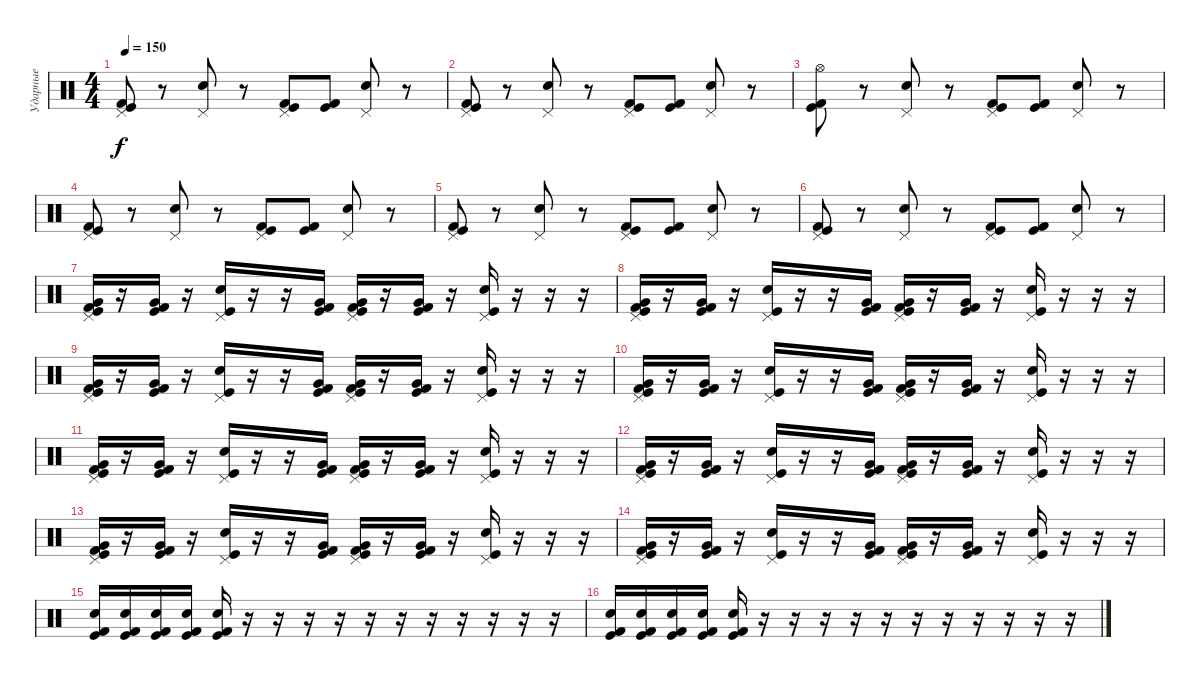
\track ("Ударные" "Ударные") {instrument percussion}
\staff {score}
\articulation defaults
\ts (4 4)
\tempo 150
\clef neutral
\ks c
("Pedal Hi-Hat (hit)" "Kick (hit)" "Kick (hit) 2").8{dy f} r.8 ("Pedal Hi-Hat (hit)" "Electric Snare (hit)").8 r.8 ("Pedal Hi-Hat (hit)" "Kick (hit)" "Kick (hit) 2").8 ("Kick (hit)" "Kick (hit) 2").8 ("Pedal Hi-Hat (hit)" "Electric Snare (hit)").8 r.8 |
("Pedal Hi-Hat (hit)" "Kick (hit)" "Kick (hit) 2").8 r.8 ("Pedal Hi-Hat (hit)" "Electric Snare (hit)").8 r.8 ("Pedal Hi-Hat (hit)" "Kick (hit)" "Kick (hit) 2").8 ("Kick (hit)" "Kick (hit) 2").8 ("Pedal Hi-Hat (hit)" "Electric Snare (hit)").8 r.8 |
("Hi-Hat (open)" "Kick (hit)" "Kick (hit) 2").8 r.8 ("Pedal Hi-Hat (hit)" "Electric Snare (hit)").8 r.8 ("Pedal Hi-Hat (hit)" "Kick (hit)" "Kick (hit) 2").8 ("Kick (hit)" "Kick (hit) 2").8 ("Pedal Hi-Hat (hit)" "Electric Snare (hit)").8 r.8 |
("Pedal Hi-Hat (hit)" "Kick (hit)" "Kick (hit) 2").8 r.8 ("Pedal Hi-Hat (hit)" "Electric Snare (hit)").8 r.8 ("Pedal Hi-Hat (hit)" "Kick (hit)" "Kick (hit) 2").8 ("Kick (hit)" "Kick (hit) 2").8 ("Pedal Hi-Hat (hit)" "Electric Snare (hit)").8 r.8 |
("Pedal Hi-Hat (hit)" "Kick (hit)" "Kick (hit) 2").8 r.8 ("Pedal Hi-Hat (hit)" "Electric Snare (hit)").8 r.8 ("Pedal Hi-Hat (hit)" "Kick (hit)" "Kick (hit) 2").8 ("Kick (hit)" "Kick (hit) 2").8 ("Pedal Hi-Hat (hit)" "Electric Snare (hit)").8 r.8 |
("Pedal Hi-Hat (hit)" "Kick (hit)" "Kick (hit) 2").8 r.8 ("Pedal Hi-Hat (hit)" "Electric Snare (hit)").8 r.8 ("Pedal Hi-Hat (hit)" "Kick (hit)" "Kick (hit) 2").8 ("Kick (hit)" "Kick (hit) 2").8 ("Pedal Hi-Hat (hit)" "Electric Snare (hit)").8 r.8 |
("Pedal Hi-Hat (hit)" "Very Low Tom (hit)" "Kick (hit) 2" "Kick (hit)").16 r.16 ("Very Low Tom (hit)" "Kick (hit) 2" "Kick (hit)").16 r.16 ("Pedal Hi-Hat (hit)" "Electric Snare (hit)" "Kick (hit)").16 r.16 r.16 ("Very Low Tom (hit)" "Kick (hit) 2" "Kick (hit)").16 ("Pedal Hi-Hat (hit)" "Very Low Tom (hit)" "Kick (hit) 2" "Kick (hit)").16 r.16 ("Very Low Tom (hit)" "Kick (hit) 2" "Kick (hit)").16 r.16 ("Pedal Hi-Hat (hit)" "Electric Snare (hit)" "Kick (hit)").16 r.16 r.16 r.16 |
("Pedal Hi-Hat (hit)" "Very Low Tom (hit)" "Kick (hit) 2" "Kick (hit)").16 r.16 ("Very Low Tom (hit)" "Kick (hit) 2" "Kick (hit)").16 r.16 ("Pedal Hi-Hat (hit)" "Electric Snare (hit)" "Kick (hit)").16 r.16 r.16 ("Very Low Tom (hit)" "Kick (hit) 2" "Kick (hit)").16 ("Pedal Hi-Hat (hit)" "Very Low Tom (hit)" "Kick (hit) 2" "Kick (hit)").16 r.16 ("Very Low Tom (hit)" "Kick (hit) 2" "Kick (hit)").16 r.16 ("Pedal Hi-Hat (hit)" "Electric Snare (hit)" "Kick (hit)").16 r.16 r.16 r.16 |
("Pedal Hi-Hat (hit)" "Very Low Tom (hit)" "Kick (hit) 2" "Kick (hit)").16 r.16 ("Very Low Tom (hit)" "Kick (hit) 2" "Kick (hit)").16 r.16 ("Pedal Hi-Hat (hit)" "Electric Snare (hit)" "Kick (hit)").16 r.16 r.16 ("Very Low Tom (hit)" "Kick (hit) 2" "Kick (hit)").16 ("Pedal Hi-Hat (hit)" "Very Low Tom (hit)" "Kick (hit) 2" "Kick (hit)").16 r.16 ("Very Low Tom (hit)" "Kick (hit) 2" "Kick (hit)").16 r.16 ("Pedal Hi-Hat (hit)" "Electric Snare (hit)" "Kick (hit)").16 r.16 r.16 r.16 |
("Pedal Hi-Hat (hit)" "Very Low Tom (hit)" "Kick (hit) 2" "Kick (hit)").16 r.16 ("Very Low Tom (hit)" "Kick (hit) 2" "Kick (hit)").16 r.16 ("Pedal Hi-Hat (hit)" "Electric Snare (hit)" "Kick (hit)").16 r.16 r.16 ("Very Low Tom (hit)" "Kick (hit) 2" "Kick (hit)").16 ("Pedal Hi-Hat (hit)" "Very Low Tom (hit)" "Kick (hit) 2" "Kick (hit)").16 r.16 ("Very Low Tom (hit)" "Kick (hit) 2" "Kick (hit)").16 r.16 ("Pedal Hi-Hat (hit)" "Electric Snare (hit)" "Kick (hit)").16 r.16 r.16 r.16 |
("Pedal Hi-Hat (hit)" "Very Low Tom (hit)" "Kick (hit) 2" "Kick (hit)").16 r.16 ("Very Low Tom (hit)" "Kick (hit) 2" "Kick (hit)").16 r.16 ("Pedal Hi-Hat (hit)" "Electric Snare (hit)" "Kick (hit)").16 r.16 r.16 ("Very Low Tom (hit)" "Kick (hit) 2" "Kick (hit)").16 ("Pedal Hi-Hat (hit)" "Very Low Tom (hit)" "Kick (hit) 2" "Kick (hit)").16 r.16 ("Very Low Tom (hit)" "Kick (hit) 2" "Kick (hit)").16 r.16 ("Pedal Hi-Hat (hit)" "Electric Snare (hit)" "Kick (hit)").16 r.16 r.16 r.16 |
("Pedal Hi-Hat (hit)" "Very Low Tom (hit)" "Kick (hit) 2" "Kick (hit)").16 r.16 ("Very Low Tom (hit)" "Kick (hit) 2" "Kick (hit)").16 r.16 ("Pedal Hi-Hat (hit)" "Electric Snare (hit)" "Kick (hit)").16 r.16 r.16 ("Very Low Tom (hit)" "Kick (hit) 2" "Kick (hit)").16 ("Pedal Hi-Hat (hit)" "Very Low Tom (hit)" "Kick (hit) 2" "Kick (hit)").16 r.16 ("Very Low Tom (hit)" "Kick (hit) 2" "Kick (hit)").16 r.16 ("Pedal Hi-Hat (hit)" "Electric Snare (hit)" "Kick (hit)").16 r.16 r.16 r.16 |
("Pedal Hi-Hat (hit)" "Very Low Tom (hit)" "Kick (hit) 2" "Kick (hit)").16 r.16 ("Very Low Tom (hit)" "Kick (hit) 2" "Kick (hit)").16 r.16 ("Pedal Hi-Hat (hit)" "Electric Snare (hit)" "Kick (hit)").16 r.16 r.16 ("Very Low Tom (hit)" "Kick (hit) 2" "Kick (hit)").16 ("Pedal Hi-Hat (hit)" "Very Low Tom (hit)" "Kick (hit) 2" "Kick (hit)").16 r.16 ("Very Low Tom (hit)" "Kick (hit) 2" "Kick (hit)").16 r.16 ("Pedal Hi-Hat (hit)" "Electric Snare (hit)" "Kick (hit)").16 r.16 r.16 r.16 |
("Pedal Hi-Hat (hit)" "Very Low Tom (hit)" "Kick (hit) 2" "Kick (hit)").16 r.16 ("Very Low Tom (hit)" "Kick (hit) 2" "Kick (hit)").16 r.16 ("Pedal Hi-Hat (hit)" "Electric Snare (hit)" "Kick (hit)").16 r.16 r.16 ("Very Low Tom (hit)" "Kick (hit) 2" "Kick (hit)").16 ("Pedal Hi-Hat (hit)" "Very Low Tom (hit)" "Kick (hit) 2" "Kick (hit)").16 r.16 ("Very Low Tom (hit)" "Kick (hit) 2" "Kick (hit)").16 r.16 ("Pedal Hi-Hat (hit)" "Electric Snare (hit)" "Kick (hit)").16 r.16 r.16 r.16 |
("Electric Snare (hit)" "Kick (hit)" "Kick (hit) 2").16 ("Electric Snare (hit)" "Kick (hit)" "Kick (hit) 2").16 ("Electric Snare (hit)" "Kick (hit)" "Kick (hit) 2").16 ("Electric Snare (hit)" "Kick (hit)" "Kick (hit) 2").16 ("Electric Snare (hit)" "Kick (hit)" "Kick (hit) 2").16 r.16 r.16 r.16 r.16 r.16 r.16 r.16 r.16 r.16 r.16 r.16 |
("Electric Snare (hit)" "Kick (hit)" "Kick (hit) 2").16 ("Electric Snare (hit)" "Kick (hit)" "Kick (hit) 2").16 ("Electric Snare (hit)" "Kick (hit)" "Kick (hit) 2").16 ("Electric Snare (hit)" "Kick (hit)" "Kick (hit) 2").16 ("Electric Snare (hit)" "Kick (hit)" "Kick (hit) 2").16 r.16 r.16 r.16 r.16 r.16 r.16 r.16 r.16 r.16 r.16 r.16
